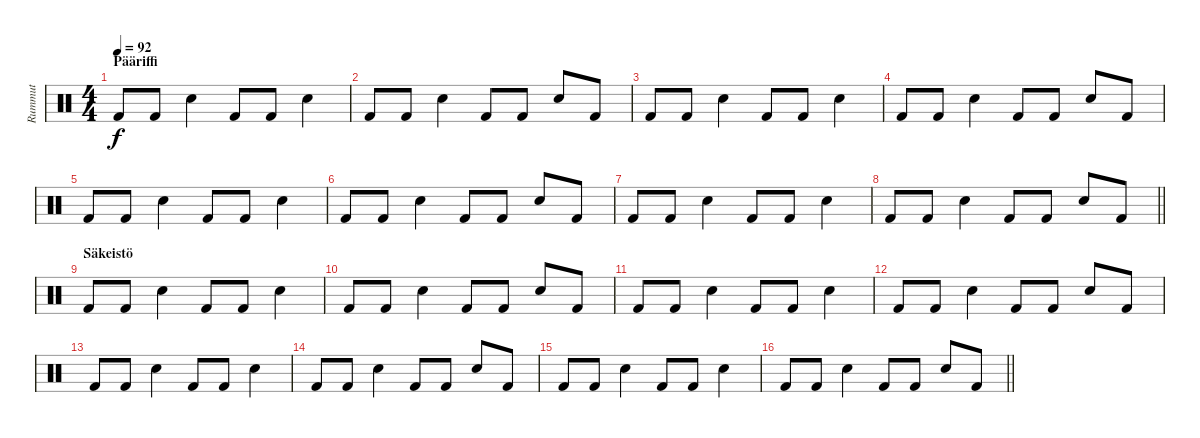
\track ("Rummut" "Rummut") {instrument percussion}
\staff {score}
\articulation defaults
\ts (4 4)
\section ("" "Pääriffi")
\tempo 92
\clef neutral
\ks c "Kick (hit) 2".8{dy f} "Kick (hit) 2".8 "Snare (hit) 2".4 "Kick (hit) 2".8 "Kick (hit) 2".8 "Snare (hit) 2".4
|
"Kick (hit) 2".8 "Kick (hit) 2".8 "Snare (hit) 2".4 "Kick (hit) 2".8 "Kick (hit) 2".8 "Snare (hit) 2".8 "Kick (hit) 2".8 |
"Kick (hit) 2".8 "Kick (hit) 2".8 "Snare (hit) 2".4 "Kick (hit) 2".8 "Kick (hit) 2".8 "Snare (hit) 2".4 |
"Kick (hit) 2".8 "Kick (hit) 2".8 "Snare (hit) 2".4 "Kick (hit) 2".8 "Kick (hit) 2".8 "Snare (hit) 2".8 "Kick (hit) 2".8 |
"Kick (hit) 2".8 "Kick (hit) 2".8 "Snare (hit) 2".4 "Kick (hit) 2".8 "Kick (hit) 2".8 "Snare (hit) 2".4 |
"Kick (hit) 2".8 "Kick (hit) 2".8 "Snare (hit) 2".4 "Kick (hit) 2".8 "Kick (hit) 2".8 "Snare (hit) 2".8 "Kick (hit) 2".8 |
"Kick (hit) 2".8 "Kick (hit) 2".8 "Snare (hit) 2".4 "Kick (hit) 2".8 "Kick (hit) 2".8 "Snare (hit) 2".4 |
\barLineRight lightlight "Kick (hit) 2".8 "Kick (hit) 2".8 "Snare (hit) 2".4 "Kick (hit) 2".8 "Kick (hit) 2".8 "Snare (hit) 2".8 "Kick (hit) 2".8
|
\section ("" "Säkeistö")
"Kick (hit) 2".8 "Kick (hit) 2".8 "Snare (hit) 2".4 "Kick (hit) 2".8 "Kick (hit) 2".8 "Snare (hit) 2".4 |
"Kick (hit) 2".8 "Kick (hit) 2".8 "Snare (hit) 2".4 "Kick (hit) 2".8 "Kick (hit) 2".8 "Snare (hit) 2".8 "Kick (hit) 2".8 |
"Kick (hit) 2".8 "Kick (hit) 2".8 "Snare (hit) 2".4 "Kick (hit) 2".8 "Kick (hit) 2".8 "Snare (hit) 2".4 |
"Kick (hit) 2".8 "Kick (hit) 2".8 "Snare (hit) 2".4 "Kick (hit) 2".8 "Kick (hit) 2".8 "Snare (hit) 2".8 "Kick (hit) 2".8 |
"Kick (hit) 2".8 "Kick (hit) 2".8 "Snare (hit) 2".4 "Kick (hit) 2".8 "Kick (hit) 2".8 "Snare (hit) 2".4 |
"Kick (hit) 2".8 "Kick (hit) 2".8 "Snare (hit) 2".4 "Kick (hit) 2".8 "Kick (hit) 2".8 "Snare (hit) 2".8 "Kick (hit) 2".8 |
"Kick (hit) 2".8 "Kick (hit) 2".8 "Snare (hit) 2".4 "Kick (hit) 2".8 "Kick (hit) 2".8 "Snare (hit) 2".4 |
\barLineRight lightlight "Kick (hit) 2".8 "Kick (hit) 2".8 "Snare (hit) 2".4 "Kick (hit) 2".8 "Kick (hit) 2".8 "Snare (hit) 2".8 "Kick (hit) 2".8
